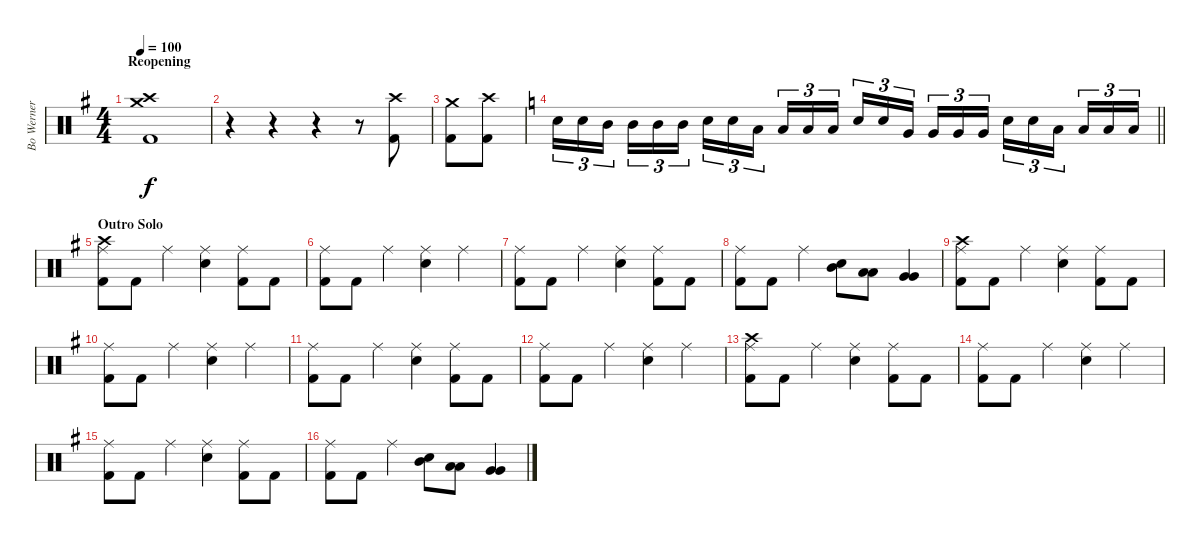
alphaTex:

\track ("Bo Werner" "Bo Werner") {instrument percussion}
\staff {score}
\articulation defaults
\ts (4 4)
\section ("" "Reopening")
\tempo 100
\clef neutral
\ks g
("Crash medium (hit)" "Crash high (hit)" "Kick (hit) 2").1{dy f} |
r.4 r.4 r.4 r.8 ("Crash high (hit)" "Kick (hit) 2").8 |
("Crash medium (hit)" "Kick (hit) 2").8 ("Crash high (hit)" "Kick (hit) 2").8 |
\barLineRight lightlight
\ks c "Snare (hit) 2".16{tu (3 2)} "Snare (hit) 2".16{tu (3 2)} "Mid Tom (hit)".16{tu (3 2) beam splitsecondary} "Mid Tom (hit)".16{tu (3 2)} "Mid Tom (hit)".16{tu (3 2)} "Mid Tom (hit)".16{tu (3 2)} "Snare (hit) 2".16{tu (3 2)} "Snare (hit) 2".16{tu (3 2)} "Low Tom (hit)".16{tu (3 2) beam splitsecondary} "Low Tom (hit)".16{tu (3 2)} "Low Tom (hit)".16{tu (3 2)} "Low Tom (hit)".16{tu (3 2)} "Snare (hit) 2".16{tu (3 2)} "Snare (hit) 2".16{tu (3 2)} "Very Low Tom (hit)".16{tu (3 2) beam splitsecondary} "Very Low Tom (hit)".16{tu (3 2)} "Very Low Tom (hit)".16{tu (3 2)} "Very Low Tom (hit)".16{tu (3 2)} "Snare (hit) 2".16{tu (3 2)} "Snare (hit) 2".16{tu (3 2)} "Low Floor Tom (hit)".16{tu (3 2) beam splitsecondary} "Low Floor Tom (hit)".16{tu (3 2)} "Low Floor Tom (hit)".16{tu (3 2)} "Low Floor Tom (hit)".16{tu (3 2)}
|
\section ("" "Outro Solo")
\ks g
("Crash high (hit)" "Ride (middle)" "Kick (hit) 2").8 "Kick (hit) 2".8 "Ride (middle)".4 ("Ride (middle)" "Snare (hit) 2").4 ("Ride (middle)" "Kick (hit) 2").8 "Kick (hit) 2".8 |
("Ride (middle)" "Kick (hit) 2").8 "Kick (hit) 2".8 "Ride (middle)".4 ("Ride (middle)" "Snare (hit) 2").4 "Ride (middle)".4 |
("Ride (middle)" "Kick (hit) 2").8 "Kick (hit) 2".8 "Ride (middle)".4 ("Ride (middle)" "Snare (hit) 2").4 ("Ride (middle)" "Kick (hit) 2").8 "Kick (hit) 2".8 |
("Ride (middle)" "Kick (hit) 2").8 "Kick (hit) 2".8 "Ride (middle)".4 ("Snare (hit) 2" "Mid Tom (hit)").8 ("Low Tom (hit)" "Low Tom (hit)").8 ("Very Low Tom (hit)" "Very Low Tom (hit)").4 |
("Crash high (hit)" "Ride (middle)" "Kick (hit) 2").8 "Kick (hit) 2".8 "Ride (middle)".4 ("Ride (middle)" "Snare (hit) 2").4 ("Ride (middle)" "Kick (hit) 2").8 "Kick (hit) 2".8 |
("Ride (middle)" "Kick (hit) 2").8 "Kick (hit) 2".8 "Ride (middle)".4 ("Ride (middle)" "Snare (hit) 2").4 "Ride (middle)".4 |
("Ride (middle)" "Kick (hit) 2").8 "Kick (hit) 2".8 "Ride (middle)".4 ("Ride (middle)" "Snare (hit) 2").4 ("Ride (middle)" "Kick (hit) 2").8 "Kick (hit) 2".8 |
("Ride (middle)" "Kick (hit) 2").8 "Kick (hit) 2".8 "Ride (middle)".4 ("Ride (middle)" "Snare (hit) 2").4 "Ride (middle)".4 |
("Crash high (hit)" "Ride (middle)" "Kick (hit) 2").8 "Kick (hit) 2".8 "Ride (middle)".4 ("Ride (middle)" "Snare (hit) 2").4 ("Ride (middle)" "Kick (hit) 2").8 "Kick (hit) 2".8 |
("Ride (middle)" "Kick (hit) 2").8 "Kick (hit) 2".8 "Ride (middle)".4 ("Ride (middle)" "Snare (hit) 2").4 "Ride (middle)".4 |
("Ride (middle)" "Kick (hit) 2").8 "Kick (hit) 2".8 "Ride (middle)".4 ("Ride (middle)" "Snare (hit) 2").4 ("Ride (middle)" "Kick (hit) 2").8 "Kick (hit) 2".8 |
("Ride (middle)" "Kick (hit) 2").8 "Kick (hit) 2".8 "Ride (middle)".4 ("Snare (hit) 2" "Mid Tom (hit)").8 ("Low Tom (hit)" "Low Tom (hit)").8 ("Very Low Tom (hit)" "Very Low Tom (hit)").4
